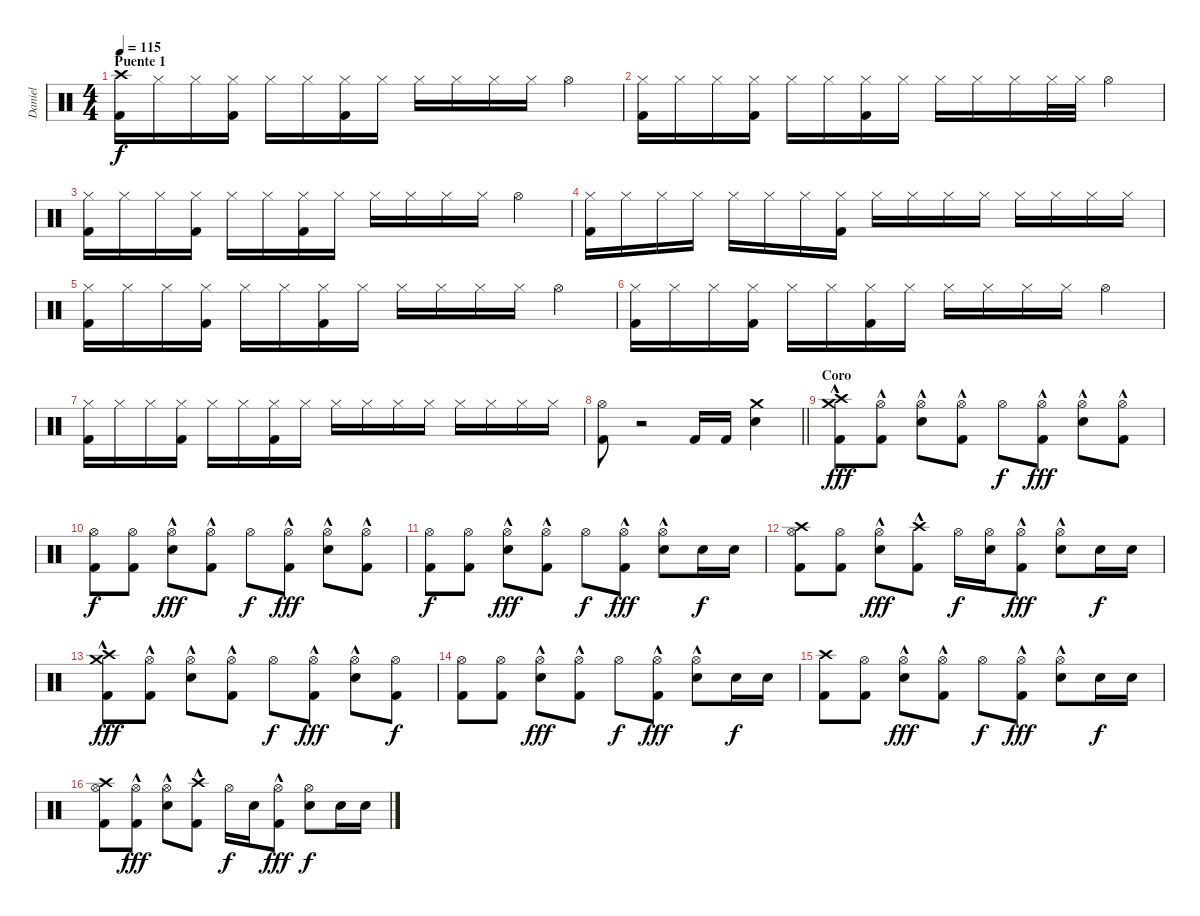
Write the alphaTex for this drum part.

\track ("Daniel" "Daniel") {instrument percussion}
\staff {score}
\articulation defaults
\ts (4 4)
\section ("" "Puente 1")
\tempo 115
\clef neutral
\ks c
("Crash high (hit)" "Kick (hit) 2").16{dy f} "Hi-Hat (closed)".16 "Hi-Hat (closed)".16 ("Kick (hit) 2" "Hi-Hat (closed)").16 "Hi-Hat (closed)".16 "Hi-Hat (closed)".16 ("Kick (hit) 2" "Hi-Hat (closed)").16 "Hi-Hat (closed)".16 "Hi-Hat (closed)".16 "Hi-Hat (closed)".16 "Hi-Hat (closed)".16 "Hi-Hat (closed)".16 "Hi-Hat (open)".4 |
("Kick (hit) 2" "Hi-Hat (closed)").16 "Hi-Hat (closed)".16 "Hi-Hat (closed)".16 ("Kick (hit) 2" "Hi-Hat (closed)").16 "Hi-Hat (closed)".16 "Hi-Hat (closed)".16 ("Kick (hit) 2" "Hi-Hat (closed)").16 "Hi-Hat (closed)".16 "Hi-Hat (closed)".16 "Hi-Hat (closed)".16 "Hi-Hat (closed)".16 "Hi-Hat (closed)".32 "Hi-Hat (closed)".32 "Hi-Hat (open)".4 |
("Kick (hit) 2" "Hi-Hat (closed)").16 "Hi-Hat (closed)".16 "Hi-Hat (closed)".16 ("Kick (hit) 2" "Hi-Hat (closed)").16 "Hi-Hat (closed)".16 "Hi-Hat (closed)".16 ("Kick (hit) 2" "Hi-Hat (closed)").16 "Hi-Hat (closed)".16 "Hi-Hat (closed)".16 "Hi-Hat (closed)".16 "Hi-Hat (closed)".16 "Hi-Hat (closed)".16 "Hi-Hat (open)".4 |
("Kick (hit) 2" "Hi-Hat (closed)").16 "Hi-Hat (closed)".16 "Hi-Hat (closed)".16 "Hi-Hat (closed)".16 "Hi-Hat (closed)".16 "Hi-Hat (closed)".16 "Hi-Hat (closed)".16 ("Kick (hit) 2" "Hi-Hat (closed)").16 "Hi-Hat (closed)".16 "Hi-Hat (closed)".16 "Hi-Hat (closed)".16 "Hi-Hat (closed)".16 "Hi-Hat (closed)".16 "Hi-Hat (closed)".16 "Hi-Hat (closed)".16 "Hi-Hat (closed)".16 |
("Kick (hit) 2" "Hi-Hat (closed)").16 "Hi-Hat (closed)".16 "Hi-Hat (closed)".16 ("Kick (hit) 2" "Hi-Hat (closed)").16 "Hi-Hat (closed)".16 "Hi-Hat (closed)".16 ("Kick (hit) 2" "Hi-Hat (closed)").16 "Hi-Hat (closed)".16 "Hi-Hat (closed)".16 "Hi-Hat (closed)".16 "Hi-Hat (closed)".16 "Hi-Hat (closed)".16 "Hi-Hat (open)".4 |
("Kick (hit) 2" "Hi-Hat (closed)").16 "Hi-Hat (closed)".16 "Hi-Hat (closed)".16 ("Kick (hit) 2" "Hi-Hat (closed)").16 "Hi-Hat (closed)".16 "Hi-Hat (closed)".16 ("Kick (hit) 2" "Hi-Hat (closed)").16 "Hi-Hat (closed)".16 "Hi-Hat (closed)".16 "Hi-Hat (closed)".16 "Hi-Hat (closed)".16 "Hi-Hat (closed)".16 "Hi-Hat (open)".4 |
("Kick (hit) 2" "Hi-Hat (closed)").16 "Hi-Hat (closed)".16 "Hi-Hat (closed)".16 ("Kick (hit) 2" "Hi-Hat (closed)").16 "Hi-Hat (closed)".16 "Hi-Hat (closed)".16 ("Kick (hit) 2" "Hi-Hat (closed)").16 "Hi-Hat (closed)".16 "Hi-Hat (closed)".16 "Hi-Hat (closed)".16 "Hi-Hat (closed)".16 "Hi-Hat (closed)".16 "Hi-Hat (closed)".16 "Hi-Hat (closed)".16 "Hi-Hat (closed)".16 "Hi-Hat (closed)".16 |
\barLineRight lightlight
("Hi-Hat (open)" "Kick (hit) 2").8 r.2 "Kick (hit) 2".16 "Kick (hit) 2".16 ("Crash medium (hit)" "Snare (hit) 2").4 |
\section ("" "Coro")
("Crash medium (hit)" "Crash high (hit)" "Kick (hit) 2"{hac}).8{dy fff} ("Hi-Hat (open)" "Kick (hit) 2"{hac}).8 ("Hi-Hat (open)"{hac} "Snare (hit) 2").8 ("Hi-Hat (open)" "Kick (hit) 2"{hac}).8 "Hi-Hat (open)".8{dy f} ("Hi-Hat (open)" "Kick (hit) 2"{hac}).8{dy fff} ("Hi-Hat (open)"{hac} "Snare (hit) 2").8 ("Hi-Hat (open)" "Kick (hit) 2"{hac}).8 |
("Hi-Hat (open)" "Kick (hit) 2").8{dy f} ("Hi-Hat (open)" "Kick (hit) 2").8 ("Hi-Hat (open)"{hac} "Snare (hit) 2").8{dy fff} ("Hi-Hat (open)" "Kick (hit) 2"{hac}).8 "Hi-Hat (open)".8{dy f} ("Hi-Hat (open)" "Kick (hit) 2"{hac}).8{dy fff} ("Hi-Hat (open)"{hac} "Snare (hit) 2").8 ("Hi-Hat (open)" "Kick (hit) 2"{hac}).8 |
("Hi-Hat (open)" "Kick (hit) 2").8{dy f} ("Hi-Hat (open)" "Kick (hit) 2").8 ("Hi-Hat (open)"{hac} "Snare (hit) 2").8{dy fff} ("Hi-Hat (open)" "Kick (hit) 2"{hac}).8 "Hi-Hat (open)".8{dy f} ("Hi-Hat (open)" "Kick (hit) 2"{hac}).8{dy fff} ("Hi-Hat (open)"{hac} "Snare (hit) 2").8 "Snare (hit) 2".16{dy f} "Snare (hit) 2".16 |
("Crash high (hit)" "Hi-Hat (open)" "Kick (hit) 2").8 ("Hi-Hat (open)" "Kick (hit) 2").8 ("Hi-Hat (open)"{hac} "Snare (hit) 2").8{dy fff} ("Crash high (hit)" "Kick (hit) 2"{hac}).8 "Hi-Hat (open)".16{dy f} ("Hi-Hat (open)" "Snare (hit) 2").16 ("Hi-Hat (open)" "Kick (hit) 2"{hac}).8{dy fff} ("Hi-Hat (open)"{hac} "Snare (hit) 2").8 "Snare (hit) 2".16{dy f} "Snare (hit) 2".16 |
("Crash medium (hit)" "Crash high (hit)" "Kick (hit) 2"{hac}).8{dy fff} ("Hi-Hat (open)" "Kick (hit) 2"{hac}).8 ("Hi-Hat (open)"{hac} "Snare (hit) 2").8 ("Hi-Hat (open)" "Kick (hit) 2"{hac}).8 "Hi-Hat (open)".8{dy f} ("Hi-Hat (open)" "Kick (hit) 2"{hac}).8{dy fff} ("Hi-Hat (open)"{hac} "Snare (hit) 2").8 ("Hi-Hat (open)" "Kick (hit) 2").8{dy f} |
("Hi-Hat (open)" "Kick (hit) 2").8 ("Hi-Hat (open)" "Kick (hit) 2").8 ("Hi-Hat (open)"{hac} "Snare (hit) 2").8{dy fff} ("Hi-Hat (open)" "Kick (hit) 2"{hac}).8 "Hi-Hat (open)".8{dy f} ("Hi-Hat (open)" "Kick (hit) 2"{hac}).8{dy fff} ("Hi-Hat (open)"{hac} "Snare (hit) 2").8 "Snare (hit) 2".16{dy f} "Snare (hit) 2".16 |
("Crash high (hit)" "Kick (hit) 2").8 ("Hi-Hat (open)" "Kick (hit) 2").8 ("Hi-Hat (open)"{hac} "Snare (hit) 2").8{dy fff} ("Hi-Hat (open)" "Kick (hit) 2"{hac}).8 "Hi-Hat (open)".8{dy f} ("Hi-Hat (open)" "Kick (hit) 2"{hac}).8{dy fff} ("Hi-Hat (open)"{hac} "Snare (hit) 2").8 "Snare (hit) 2".16{dy f} "Snare (hit) 2".16 |
("Crash high (hit)" "Hi-Hat (open)" "Kick (hit) 2").8 ("Hi-Hat (open)" "Kick (hit) 2"{hac}).8{dy fff} ("Hi-Hat (open)"{hac} "Snare (hit) 2").8 ("Crash high (hit)" "Kick (hit) 2"{hac}).8 "Hi-Hat (open)".16{dy f} "Snare (hit) 2".16 ("Hi-Hat (open)" "Kick (hit) 2"{hac}).8{dy fff} ("Hi-Hat (open)" "Snare (hit) 2").8{dy f} "Snare (hit) 2".16 "Snare (hit) 2".16
